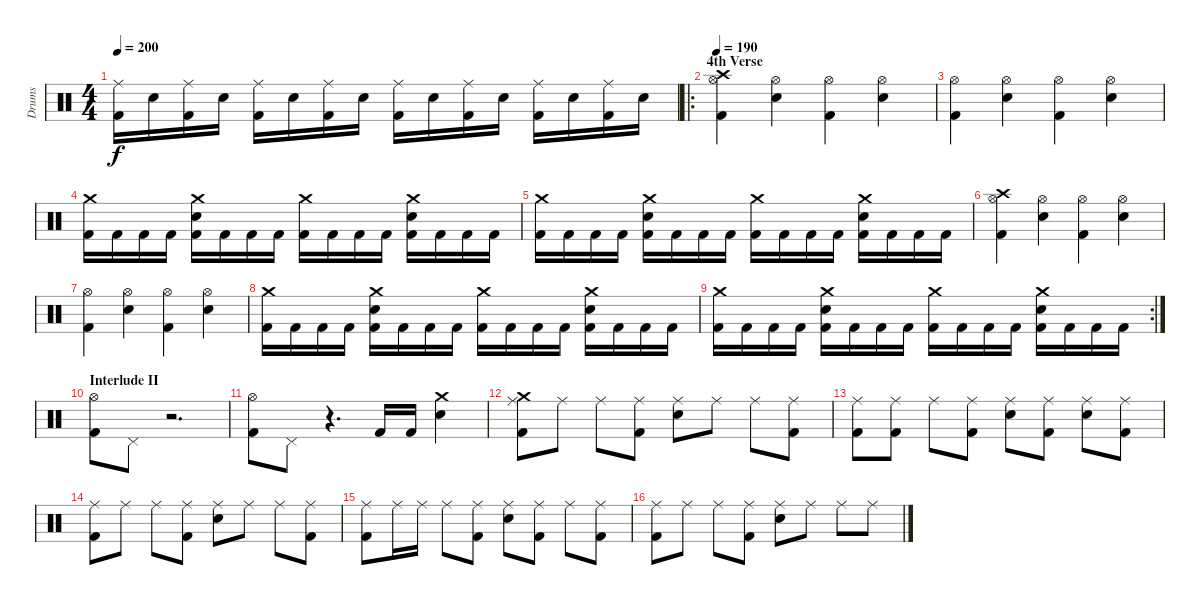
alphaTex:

\track ("Drums" "Drums") {instrument percussion}
\staff {score}
\articulation defaults
\ts (4 4)
\tempo 200
\clef neutral
\ks c
("Kick (hit) 2" "Ride (middle)").16{dy f} "Snare (hit) 2".16 ("Kick (hit) 2" "Ride (middle)").16 "Snare (hit) 2".16 ("Kick (hit) 2" "Ride (middle)").16 "Snare (hit) 2".16 ("Kick (hit) 2" "Ride (middle)").16 "Snare (hit) 2".16 ("Kick (hit) 2" "Ride (middle)").16 "Snare (hit) 2".16 ("Kick (hit) 2" "Ride (middle)").16 "Snare (hit) 2".16 ("Kick (hit) 2" "Ride (middle)").16 "Snare (hit) 2".16 ("Kick (hit) 2" "Ride (middle)").16 "Snare (hit) 2".16 |
\ro
\section ("" "4th Verse")
\tempo 190
("Kick (hit) 2" "Hi-Hat (open)" "Crash high (hit)").4 ("Electric Snare (hit)" "Hi-Hat (open)").4 ("Kick (hit) 2" "Hi-Hat (open)").4 ("Electric Snare (hit)" "Hi-Hat (open)").4 |
("Kick (hit) 2" "Hi-Hat (open)").4 ("Electric Snare (hit)" "Hi-Hat (open)").4 ("Kick (hit) 2" "Hi-Hat (open)").4 ("Electric Snare (hit)" "Hi-Hat (open)").4 |
("Kick (hit) 2" "Crash medium (hit)").16 "Kick (hit) 2".16 "Kick (hit) 2".16 "Kick (hit) 2".16 ("Kick (hit) 2" "Electric Snare (hit)" "Crash medium (hit)").16 "Kick (hit) 2".16 "Kick (hit) 2".16 "Kick (hit) 2".16 ("Kick (hit) 2" "Crash medium (hit)").16 "Kick (hit) 2".16 "Kick (hit) 2".16 "Kick (hit) 2".16 ("Kick (hit) 2" "Electric Snare (hit)" "Crash medium (hit)").16 "Kick (hit) 2".16 "Kick (hit) 2".16 "Kick (hit) 2".16 |
("Kick (hit) 2" "Crash medium (hit)").16 "Kick (hit) 2".16 "Kick (hit) 2".16 "Kick (hit) 2".16 ("Kick (hit) 2" "Electric Snare (hit)" "Crash medium (hit)").16 "Kick (hit) 2".16 "Kick (hit) 2".16 "Kick (hit) 2".16 ("Kick (hit) 2" "Crash medium (hit)").16 "Kick (hit) 2".16 "Kick (hit) 2".16 "Kick (hit) 2".16 ("Kick (hit) 2" "Electric Snare (hit)" "Crash medium (hit)").16 "Kick (hit) 2".16 "Kick (hit) 2".16 "Kick (hit) 2".16 |
("Kick (hit) 2" "Hi-Hat (open)" "Crash high (hit)").4 ("Electric Snare (hit)" "Hi-Hat (open)").4 ("Kick (hit) 2" "Hi-Hat (open)").4 ("Electric Snare (hit)" "Hi-Hat (open)").4 |
("Kick (hit) 2" "Hi-Hat (open)").4 ("Electric Snare (hit)" "Hi-Hat (open)").4 ("Kick (hit) 2" "Hi-Hat (open)").4 ("Electric Snare (hit)" "Hi-Hat (open)").4 |
("Kick (hit) 2" "Crash medium (hit)").16 "Kick (hit) 2".16 "Kick (hit) 2".16 "Kick (hit) 2".16 ("Kick (hit) 2" "Electric Snare (hit)" "Crash medium (hit)").16 "Kick (hit) 2".16 "Kick (hit) 2".16 "Kick (hit) 2".16 ("Kick (hit) 2" "Crash medium (hit)").16 "Kick (hit) 2".16 "Kick (hit) 2".16 "Kick (hit) 2".16 ("Kick (hit) 2" "Electric Snare (hit)" "Crash medium (hit)").16 "Kick (hit) 2".16 "Kick (hit) 2".16 "Kick (hit) 2".16 |
\rc 2
("Kick (hit) 2" "Crash medium (hit)").16 "Kick (hit) 2".16 "Kick (hit) 2".16 "Kick (hit) 2".16 ("Kick (hit) 2" "Electric Snare (hit)" "Crash medium (hit)").16 "Kick (hit) 2".16 "Kick (hit) 2".16 "Kick (hit) 2".16 ("Kick (hit) 2" "Crash medium (hit)").16 "Kick (hit) 2".16 "Kick (hit) 2".16 "Kick (hit) 2".16 ("Kick (hit) 2" "Electric Snare (hit)" "Crash medium (hit)").16 "Kick (hit) 2".16 "Kick (hit) 2".16 "Kick (hit) 2".16 |
\section ("" "Interlude II")
("Kick (hit) 2" "Hi-Hat (open)").8 "Pedal Hi-Hat (hit)".8 r.2{d} |
("Kick (hit) 2" "Hi-Hat (open)").8 "Pedal Hi-Hat (hit)".8 r.4{d} "Kick (hit) 2".16 "Kick (hit) 2".16 ("Electric Snare (hit)" "Crash medium (hit)").4 |
("Kick (hit) 2" "Ride (middle)" "Crash medium (hit)").8 "Ride (middle)".8 "Ride (middle)".8 ("Kick (hit) 2" "Ride (middle)").8 ("Electric Snare (hit)" "Ride (middle)").8 "Ride (middle)".8 "Ride (middle)".8 ("Kick (hit) 2" "Ride (middle)").8 |
("Kick (hit) 2" "Ride (middle)").8 ("Kick (hit) 2" "Ride (middle)").8 "Ride (middle)".8 ("Kick (hit) 2" "Ride (middle)").8 ("Electric Snare (hit)" "Ride (middle)").8 ("Kick (hit) 2" "Ride (middle)").8 ("Electric Snare (hit)" "Ride (middle)").8 ("Kick (hit) 2" "Ride (middle)").8 |
("Kick (hit) 2" "Ride (middle)").8 "Ride (middle)".8 "Ride (middle)".8 ("Kick (hit) 2" "Ride (middle)").8 ("Electric Snare (hit)" "Ride (middle)").8 "Ride (middle)".8 "Ride (middle)".8 ("Kick (hit) 2" "Ride (middle)").8 |
("Kick (hit) 2" "Ride (middle)").8 "Ride (middle)".16 "Ride (middle)".16 "Ride (middle)".8 ("Kick (hit) 2" "Ride (middle)").8 ("Electric Snare (hit)" "Ride (middle)").8 ("Kick (hit) 2" "Ride (middle)").8 "Ride (middle)".8 ("Kick (hit) 2" "Ride (middle)").8 |
("Kick (hit) 2" "Ride (middle)").8 "Ride (middle)".8 "Ride (middle)".8 ("Kick (hit) 2" "Ride (middle)").8 ("Electric Snare (hit)" "Ride (middle)").8 "Ride (middle)".8 "Ride (middle)".8 "Ride (middle)".8
